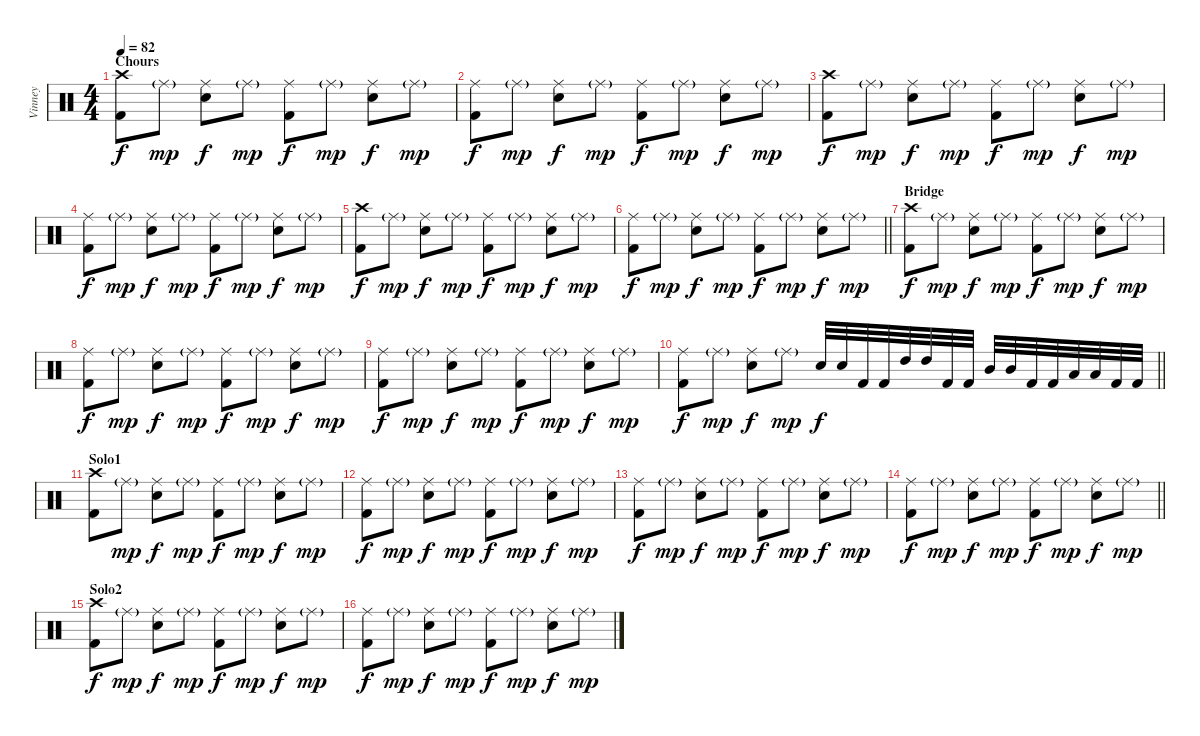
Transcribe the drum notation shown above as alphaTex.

\track ("Vinney" "Vinney") {instrument percussion}
\staff {score}
\articulation defaults
\ts (4 4)
\section ("" "Chours")
\tempo 82
\clef neutral
\ks c
("Crash high (hit)" "Kick (hit) 2").8{dy f} "Ride (middle)"{g}.8{dy mp} ("Ride (middle)" "Electric Snare (hit)").8{dy f} "Ride (middle)"{g}.8{dy mp} ("Ride (middle)" "Kick (hit) 2").8{dy f} "Ride (middle)"{g}.8{dy mp} ("Ride (middle)" "Electric Snare (hit)").8{dy f} "Ride (middle)"{g}.8{dy mp} |
("Ride (middle)" "Kick (hit) 2").8{dy f} "Ride (middle)"{g}.8{dy mp} ("Ride (middle)" "Electric Snare (hit)").8{dy f} "Ride (middle)"{g}.8{dy mp} ("Ride (middle)" "Kick (hit) 2").8{dy f} "Ride (middle)"{g}.8{dy mp} ("Ride (middle)" "Electric Snare (hit)").8{dy f} "Ride (middle)"{g}.8{dy mp} |
("Crash high (hit)" "Kick (hit) 2").8{dy f} "Ride (middle)"{g}.8{dy mp} ("Ride (middle)" "Electric Snare (hit)").8{dy f} "Ride (middle)"{g}.8{dy mp} ("Ride (middle)" "Kick (hit) 2").8{dy f} "Ride (middle)"{g}.8{dy mp} ("Ride (middle)" "Electric Snare (hit)").8{dy f} "Ride (middle)"{g}.8{dy mp} |
("Ride (middle)" "Kick (hit) 2").8{dy f} "Ride (middle)"{g}.8{dy mp} ("Ride (middle)" "Electric Snare (hit)").8{dy f} "Ride (middle)"{g}.8{dy mp} ("Ride (middle)" "Kick (hit) 2").8{dy f} "Ride (middle)"{g}.8{dy mp} ("Ride (middle)" "Electric Snare (hit)").8{dy f} "Ride (middle)"{g}.8{dy mp} |
("Crash high (hit)" "Kick (hit) 2").8{dy f} "Ride (middle)"{g}.8{dy mp} ("Ride (middle)" "Electric Snare (hit)").8{dy f} "Ride (middle)"{g}.8{dy mp} ("Ride (middle)" "Kick (hit) 2").8{dy f} "Ride (middle)"{g}.8{dy mp} ("Ride (middle)" "Electric Snare (hit)").8{dy f} "Ride (middle)"{g}.8{dy mp} |
\barLineRight lightlight
("Ride (middle)" "Kick (hit) 2").8{dy f} "Ride (middle)"{g}.8{dy mp} ("Ride (middle)" "Electric Snare (hit)").8{dy f} "Ride (middle)"{g}.8{dy mp} ("Ride (middle)" "Kick (hit) 2").8{dy f} "Ride (middle)"{g}.8{dy mp} ("Ride (middle)" "Electric Snare (hit)").8{dy f} "Ride (middle)"{g}.8{dy mp} |
\section ("" "Bridge")
("Crash high (hit)" "Kick (hit) 2").8{dy f} "Ride (middle)"{g}.8{dy mp} ("Ride (middle)" "Electric Snare (hit)").8{dy f} "Ride (middle)"{g}.8{dy mp} ("Ride (middle)" "Kick (hit) 2").8{dy f} "Ride (middle)"{g}.8{dy mp} ("Ride (middle)" "Electric Snare (hit)").8{dy f} "Ride (middle)"{g}.8{dy mp} |
("Ride (middle)" "Kick (hit) 2").8{dy f} "Ride (middle)"{g}.8{dy mp} ("Ride (middle)" "Electric Snare (hit)").8{dy f} "Ride (middle)"{g}.8{dy mp} ("Ride (middle)" "Kick (hit) 2").8{dy f} "Ride (middle)"{g}.8{dy mp} ("Ride (middle)" "Electric Snare (hit)").8{dy f} "Ride (middle)"{g}.8{dy mp} |
("Ride (middle)" "Kick (hit) 2").8{dy f} "Ride (middle)"{g}.8{dy mp} ("Ride (middle)" "Electric Snare (hit)").8{dy f} "Ride (middle)"{g}.8{dy mp} ("Ride (middle)" "Kick (hit) 2").8{dy f} "Ride (middle)"{g}.8{dy mp} ("Ride (middle)" "Electric Snare (hit)").8{dy f} "Ride (middle)"{g}.8{dy mp} |
\barLineRight lightlight
("Ride (middle)" "Kick (hit) 2").8{dy f} "Ride (middle)"{g}.8{dy mp} ("Ride (middle)" "Electric Snare (hit)").8{dy f} "Ride (middle)"{g}.8{dy mp} "Electric Snare (hit)".32{dy f} "Electric Snare (hit)".32 "Kick (hit) 2".32 "Kick (hit) 2".32 "High Tom (hit)".32 "High Tom (hit)".32 "Kick (hit) 2".32 "Kick (hit) 2".32 "Mid Tom (hit)".32 "Mid Tom (hit)".32 "Kick (hit) 2".32 "Kick (hit) 2".32 "Low Tom (hit)".32 "Low Tom (hit)".32 "Kick (hit) 2".32 "Kick (hit) 2".32 |
\section ("" "Solo1")
("Crash high (hit)" "Kick (hit) 2").8 "Ride (middle)"{g}.8{dy mp} ("Ride (middle)" "Electric Snare (hit)").8{dy f} "Ride (middle)"{g}.8{dy mp} ("Ride (middle)" "Kick (hit) 2").8{dy f} "Ride (middle)"{g}.8{dy mp} ("Ride (middle)" "Electric Snare (hit)").8{dy f} "Ride (middle)"{g}.8{dy mp} |
("Ride (middle)" "Kick (hit) 2").8{dy f} "Ride (middle)"{g}.8{dy mp} ("Ride (middle)" "Electric Snare (hit)").8{dy f} "Ride (middle)"{g}.8{dy mp} ("Ride (middle)" "Kick (hit) 2").8{dy f} "Ride (middle)"{g}.8{dy mp} ("Ride (middle)" "Electric Snare (hit)").8{dy f} "Ride (middle)"{g}.8{dy mp} |
("Ride (middle)" "Kick (hit) 2").8{dy f} "Ride (middle)"{g}.8{dy mp} ("Ride (middle)" "Electric Snare (hit)").8{dy f} "Ride (middle)"{g}.8{dy mp} ("Ride (middle)" "Kick (hit) 2").8{dy f} "Ride (middle)"{g}.8{dy mp} ("Ride (middle)" "Electric Snare (hit)").8{dy f} "Ride (middle)"{g}.8{dy mp} |
\barLineRight lightlight
("Ride (middle)" "Kick (hit) 2").8{dy f} "Ride (middle)"{g}.8{dy mp} ("Ride (middle)" "Electric Snare (hit)").8{dy f} "Ride (middle)"{g}.8{dy mp} ("Ride (middle)" "Kick (hit) 2").8{dy f} "Ride (middle)"{g}.8{dy mp} ("Ride (middle)" "Electric Snare (hit)").8{dy f} "Ride (middle)"{g}.8{dy mp} |
\section ("" "Solo2")
("Crash high (hit)" "Kick (hit) 2").8{dy f} "Ride (middle)"{g}.8{dy mp} ("Ride (middle)" "Electric Snare (hit)").8{dy f} "Ride (middle)"{g}.8{dy mp} ("Ride (middle)" "Kick (hit) 2").8{dy f} "Ride (middle)"{g}.8{dy mp} ("Ride (middle)" "Electric Snare (hit)").8{dy f} "Ride (middle)"{g}.8{dy mp} |
("Ride (middle)" "Kick (hit) 2").8{dy f} "Ride (middle)"{g}.8{dy mp} ("Ride (middle)" "Electric Snare (hit)").8{dy f} "Ride (middle)"{g}.8{dy mp} ("Ride (middle)" "Kick (hit) 2").8{dy f} "Ride (middle)"{g}.8{dy mp} ("Ride (middle)" "Electric Snare (hit)").8{dy f} "Ride (middle)"{g}.8{dy mp}
